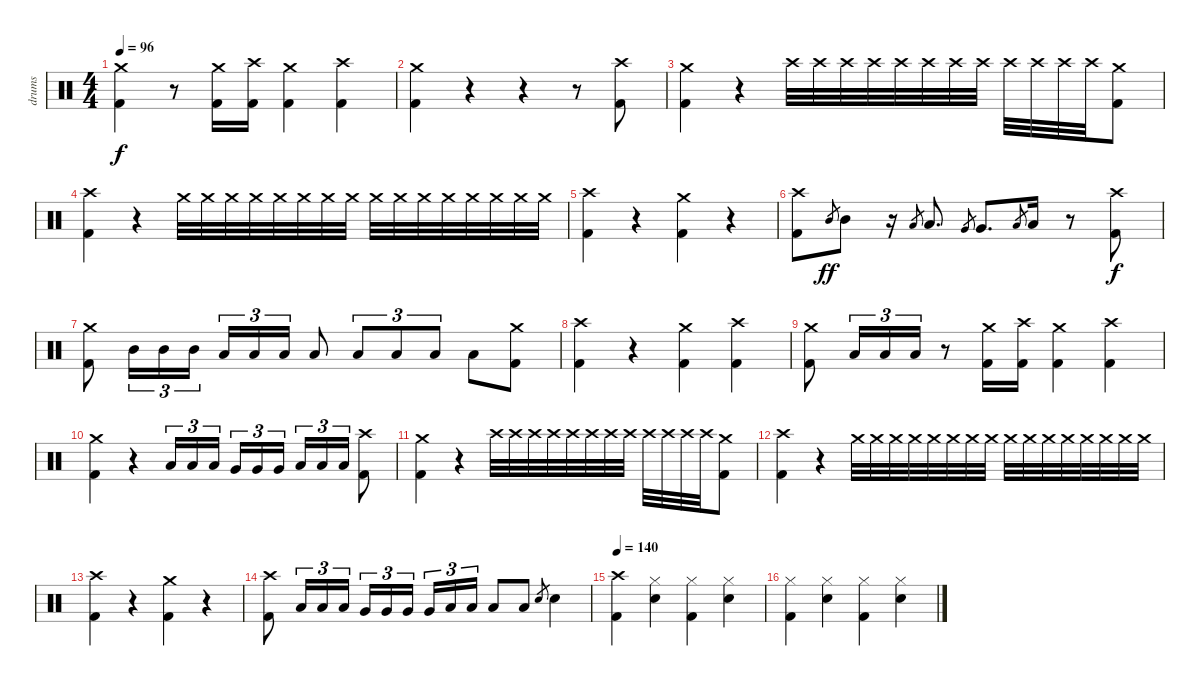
\track ("drums" "drums") {instrument percussion}
\staff {score}
\articulation defaults
\ts (4 4)
\tempo 96
\clef neutral
\ks c
("Crash medium (hit)" "Kick (hit) 2").4{dy f} r.8 ("Crash medium (hit)" "Kick (hit) 2").16 ("Crash high (hit)" "Kick (hit) 2").16 ("Crash medium (hit)" "Kick (hit) 2").4 ("Crash high (hit)" "Kick (hit) 2").4 |
("Crash medium (hit)" "Kick (hit) 2").4 r.4 r.4 r.8 ("Crash high (hit)" "Kick (hit) 2").8 |
("Crash medium (hit)" "Kick (hit) 2").4 r.4 "Crash high (hit)".32 "Crash high (hit)".32 "Crash high (hit)".32 "Crash high (hit)".32 "Crash high (hit)".32 "Crash high (hit)".32 "Crash high (hit)".32 "Crash high (hit)".32 "Crash high (hit)".32 "Crash high (hit)".32 "Crash high (hit)".32 "Crash high (hit)".32 ("Crash medium (hit)" "Kick (hit) 2").8 |
("Crash high (hit)" "Kick (hit) 2").4 r.4 "Crash medium (hit)".32 "Crash medium (hit)".32 "Crash medium (hit)".32 "Crash medium (hit)".32 "Crash medium (hit)".32 "Crash medium (hit)".32 "Crash medium (hit)".32 "Crash medium (hit)".32 "Crash medium (hit)".32 "Crash medium (hit)".32 "Crash medium (hit)".32 "Crash medium (hit)".32 "Crash medium (hit)".32 "Crash medium (hit)".32 "Crash medium (hit)".32 "Crash medium (hit)".32 |
("Crash high (hit)" "Kick (hit) 2").4 r.4 ("Crash medium (hit)" "Kick (hit) 2").4 r.4 |
("Crash high (hit)" "Kick (hit) 2").8 "Mid Tom (hit)".8{gr dy ff} "Mid Tom (hit)".8 r.16 "Low Tom (hit)".8{gr} "Low Tom (hit)".8{d} "Very Low Tom (hit)".8{gr} "Very Low Tom (hit)".8{d} "Low Floor Tom (hit)".8{gr} "Low Floor Tom (hit)".16 r.8 ("Crash high (hit)" "Kick (hit) 2").8{dy f} |
("Crash medium (hit)" "Kick (hit) 2").8 "Mid Tom (hit)".16{tu (3 2)} "Mid Tom (hit)".16{tu (3 2)} "Mid Tom (hit)".16{tu (3 2)} "Low Tom (hit)".16{tu (3 2)} "Low Tom (hit)".16{tu (3 2)} "Low Tom (hit)".16{tu (3 2)} "Low Tom (hit)".8 "Low Floor Tom (hit)".8{tu (3 2)} "Low Floor Tom (hit)".8{tu (3 2)} "Low Floor Tom (hit)".8{tu (3 2)} "Low Floor Tom (hit)".8 ("Crash medium (hit)" "Kick (hit) 2").8 |
("Crash high (hit)" "Kick (hit) 2").4 r.4 ("Crash medium (hit)" "Kick (hit) 2").4 ("Crash high (hit)" "Kick (hit) 2").4 |
("Crash medium (hit)" "Kick (hit) 2").8 "Low Tom (hit)".16{tu (3 2)} "Low Tom (hit)".16{tu (3 2)} "Low Tom (hit)".16{tu (3 2)} r.8 ("Crash medium (hit)" "Kick (hit) 2").16 ("Crash high (hit)" "Kick (hit) 2").16 ("Crash medium (hit)" "Kick (hit) 2").4 ("Crash high (hit)" "Kick (hit) 2").4 |
("Crash medium (hit)" "Kick (hit) 2").4 r.4 "Low Tom (hit)".16{tu (3 2)} "Low Tom (hit)".16{tu (3 2)} "Low Tom (hit)".16{tu (3 2) beam splitsecondary} "Very Low Tom (hit)".16{tu (3 2)} "Very Low Tom (hit)".16{tu (3 2)} "Very Low Tom (hit)".16{tu (3 2)} "Low Floor Tom (hit)".16{tu (3 2)} "Low Floor Tom (hit)".16{tu (3 2)} "Low Floor Tom (hit)".16{tu (3 2)} ("Crash high (hit)" "Kick (hit) 2").8 |
("Crash medium (hit)" "Kick (hit) 2").4 r.4 "Crash high (hit)".32 "Crash high (hit)".32 "Crash high (hit)".32 "Crash high (hit)".32 "Crash high (hit)".32 "Crash high (hit)".32 "Crash high (hit)".32 "Crash high (hit)".32 "Crash high (hit)".32 "Crash high (hit)".32 "Crash high (hit)".32 "Crash high (hit)".32 ("Crash medium (hit)" "Kick (hit) 2").8 |
("Crash high (hit)" "Kick (hit) 2").4 r.4 "Crash medium (hit)".32 "Crash medium (hit)".32 "Crash medium (hit)".32 "Crash medium (hit)".32 "Crash medium (hit)".32 "Crash medium (hit)".32 "Crash medium (hit)".32 "Crash medium (hit)".32 "Crash medium (hit)".32 "Crash medium (hit)".32 "Crash medium (hit)".32 "Crash medium (hit)".32 "Crash medium (hit)".32 "Crash medium (hit)".32 "Crash medium (hit)".32 "Crash medium (hit)".32 |
("Crash high (hit)" "Kick (hit) 2").4 r.4 ("Crash medium (hit)" "Kick (hit) 2").4 r.4 |
("Crash high (hit)" "Kick (hit) 2").8 "Low Tom (hit)".16{tu (3 2)} "Low Tom (hit)".16{tu (3 2)} "Low Tom (hit)".16{tu (3 2)} "Very Low Tom (hit)".16{tu (3 2)} "Very Low Tom (hit)".16{tu (3 2)} "Very Low Tom (hit)".16{tu (3 2) beam splitsecondary} "Very Low Tom (hit)".16{tu (3 2)} "Low Floor Tom (hit)".16{tu (3 2)} "Low Floor Tom (hit)".16{tu (3 2)} "Low Floor Tom (hit)".8 "Low Floor Tom (hit)".8 "Electric Snare (hit)".8{gr} "Electric Snare (hit)".4 |
\tempo 140
("Crash high (hit)" "Kick (hit) 2").4 ("Hi-Hat (closed)" "Electric Snare (hit)").4 ("Hi-Hat (closed)" "Kick (hit) 2").4 ("Hi-Hat (closed)" "Electric Snare (hit)").4 |
("Hi-Hat (closed)" "Kick (hit) 2").4 ("Hi-Hat (closed)" "Electric Snare (hit)").4 ("Hi-Hat (closed)" "Kick (hit) 2").4 ("Hi-Hat (closed)" "Electric Snare (hit)").4
